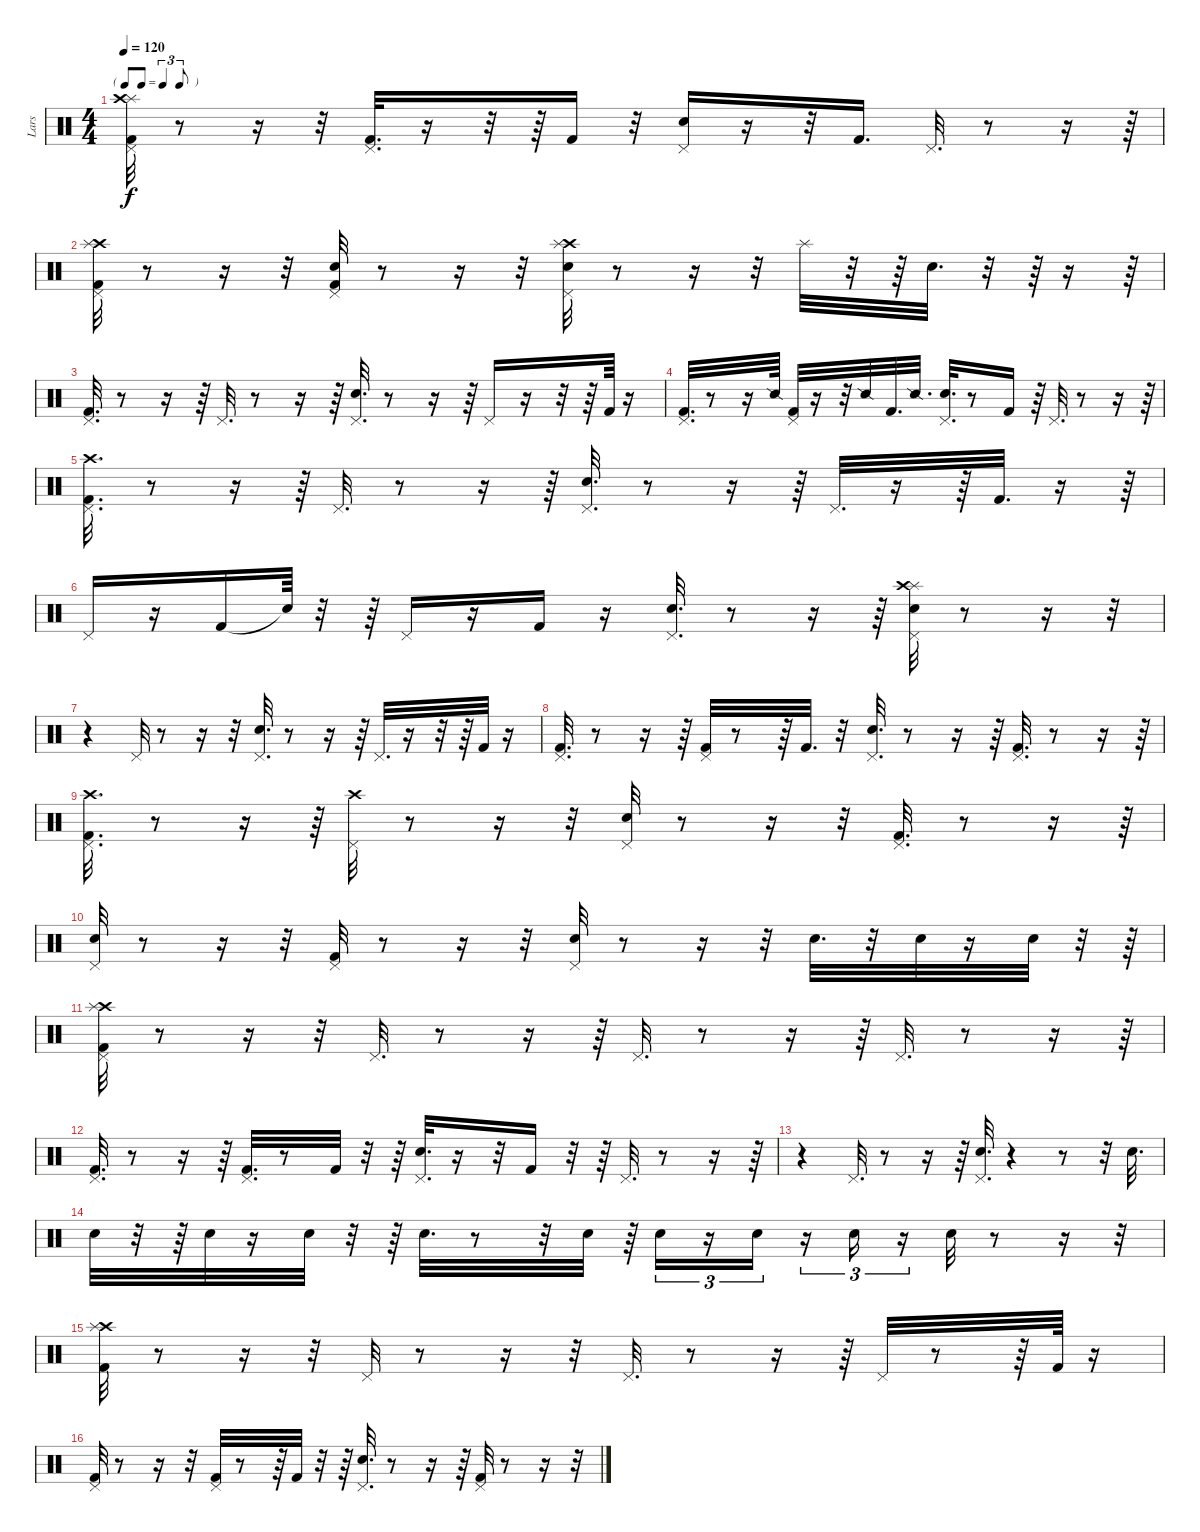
\track ("Lars" "Lars") {instrument percussion}
\staff {score}
\articulation defaults
\ts (4 4)
\tf triplet8th
\tempo 120
\clef neutral
\ks c
("Splash (hit)" "Crash high (hit)" "Kick (hit) 2" "Pedal Hi-Hat (hit)").32{dy f} r.8 r.16 r.32 ("Pedal Hi-Hat (hit)" "Kick (hit) 2").32{d} r.16 r.32 r.64 "Kick (hit) 2".16 r.32 ("Pedal Hi-Hat (hit)" "Electric Snare (hit)").16 r.16 r.32 "Kick (hit) 2".16{d} "Pedal Hi-Hat (hit)".32{d} r.8 r.16 r.64 |
("Kick (hit) 2" "Pedal Hi-Hat (hit)" "Crash high (hit)" "Splash (hit)").32 r.8 r.16 r.32 ("Kick (hit) 2" "Pedal Hi-Hat (hit)" "Electric Snare (hit)").32 r.8 r.16 r.32 ("Pedal Hi-Hat (hit)" "Crash high (hit)" "Splash (hit)" "Electric Snare (hit)").32 r.8 r.16 r.32 "Splash (hit)".32 r.32 r.64 "Electric Snare (hit)".32{d} r.32 r.64 r.16 r.64 |
("Pedal Hi-Hat (hit)" "Kick (hit) 2").32{d} r.8 r.16 r.64 "Pedal Hi-Hat (hit)".32{d} r.8 r.16 r.64 ("Pedal Hi-Hat (hit)" "Electric Snare (hit)").32{d} r.8 r.16 r.64 "Pedal Hi-Hat (hit)".16 r.16 r.32 r.64 "Kick (hit) 2".64 r.16 |
("Kick (hit) 2" "Pedal Hi-Hat (hit)").32{d} r.8 r.16 "Snare (side stick) 2".64 ("Kick (hit) 2" "Pedal Hi-Hat (hit)").32 r.16 r.32 "Snare (side stick) 2".32 "Kick (hit) 2".32{d} "Snare (side stick) 2".32{d} ("Electric Snare (hit)" "Pedal Hi-Hat (hit)").32{d} r.8 "Kick (hit) 2".16 r.64 "Pedal Hi-Hat (hit)".32{d} r.8 r.16 r.64 |
("Kick (hit) 2" "Pedal Hi-Hat (hit)" "Crash high (hit)").32{d} r.8 r.16 r.64 "Pedal Hi-Hat (hit)".32{d} r.8 r.16 r.64 ("Electric Snare (hit)" "Pedal Hi-Hat (hit)").32{d} r.8 r.16 r.64 "Pedal Hi-Hat (hit)".32{d} r.16 r.64 "Kick (hit) 2".32{d} r.16 r.64 |
"Pedal Hi-Hat (hit)".16 r.16 "Kick (hit) 2".16 "Snare (hit)"{t}.64 r.32 r.64 "Pedal Hi-Hat (hit)".16 r.16 "Kick (hit) 2".16 r.16 ("Pedal Hi-Hat (hit)" "Electric Snare (hit)").32{d} r.8 r.16 r.64 ("Splash (hit)" "Crash high (hit)" "Electric Snare (hit)" "Pedal Hi-Hat (hit)").32 r.8 r.16 r.32 |
r.4 "Pedal Hi-Hat (hit)".32 r.8 r.16 r.32 ("Electric Snare (hit)" "Pedal Hi-Hat (hit)").32{d} r.8 r.16 r.64 "Pedal Hi-Hat (hit)".32{d} r.16 r.32 r.64 "Kick (hit) 2".32 r.16 |
("Kick (hit) 2" "Pedal Hi-Hat (hit)").32{d} r.8 r.16 r.64 ("Kick (hit) 2" "Pedal Hi-Hat (hit)").32 r.8 r.64 "Kick (hit) 2".32{d} r.32 ("Pedal Hi-Hat (hit)" "Electric Snare (hit)").32{d} r.8 r.16 r.64 ("Kick (hit) 2" "Pedal Hi-Hat (hit)").32{d} r.8 r.16 r.64 |
("Crash high (hit)" "Pedal Hi-Hat (hit)" "Kick (hit) 2").32{d} r.8 r.16 r.64 ("Pedal Hi-Hat (hit)" "Crash high (hit)").32 r.8 r.16 r.32 ("Electric Snare (hit)" "Pedal Hi-Hat (hit)").32 r.8 r.16 r.32 ("Pedal Hi-Hat (hit)" "Kick (hit) 2").32{d} r.8 r.16 r.64 |
("Pedal Hi-Hat (hit)" "Electric Snare (hit)").32 r.8 r.16 r.32 ("Kick (hit) 2" "Pedal Hi-Hat (hit)").32 r.8 r.16 r.32 ("Pedal Hi-Hat (hit)" "Electric Snare (hit)").32 r.8 r.16 r.32 "Electric Snare (hit)".32{d} r.32 "Electric Snare (hit)".32 r.16 "Electric Snare (hit)".32 r.32 r.64 |
("Crash high (hit)" "Splash (hit)" "Kick (hit) 2" "Pedal Hi-Hat (hit)").32 r.8 r.16 r.32 "Pedal Hi-Hat (hit)".32{d} r.8 r.16 r.64 "Pedal Hi-Hat (hit)".32{d} r.8 r.16 r.64 "Pedal Hi-Hat (hit)".32{d} r.8 r.16 r.64 |
("Kick (hit) 2" "Pedal Hi-Hat (hit)").32{d} r.8 r.16 r.64 ("Kick (hit) 2" "Pedal Hi-Hat (hit)").32{d} r.8 "Kick (hit) 2".32 r.32 r.64 ("Electric Snare (hit)" "Pedal Hi-Hat (hit)").32{d} r.16 r.32 "Kick (hit) 2".16 r.32 r.64 "Pedal Hi-Hat (hit)".32{d} r.8 r.16 r.64 |
r.4 "Pedal Hi-Hat (hit)".32{d} r.8 r.16 r.64 ("Electric Snare (hit)" "Pedal Hi-Hat (hit)").32{d} r.4 r.8 r.32 "Electric Snare (hit)".32{d} |
"Electric Snare (hit)".32 r.32 r.64 "Electric Snare (hit)".32 r.16 "Electric Snare (hit)".32 r.32 r.64 "Electric Snare (hit)".32{d} r.8 r.32 "Electric Snare (hit)".32 r.64 "Electric Snare (hit)".16{tu (3 2)} r.16{tu (3 2)} "Electric Snare (hit)".16{tu (3 2)} r.16{tu (3 2)} "Electric Snare (hit)".16{tu (3 2)} r.16{tu (3 2)} "Electric Snare (hit)".32 r.8 r.16 r.32 |
("Kick (hit) 2" "Crash high (hit)" "Splash (hit)").32 r.8 r.16 r.32 "Pedal Hi-Hat (hit)".32 r.8 r.16 r.32 "Pedal Hi-Hat (hit)".32{d} r.8 r.16 r.64 "Pedal Hi-Hat (hit)".32 r.8 r.64 "Kick (hit) 2".64 r.16 |
("Kick (hit) 2" "Pedal Hi-Hat (hit)").32 r.8 r.16 r.32 ("Kick (hit) 2" "Pedal Hi-Hat (hit)").32 r.8 r.64 "Kick (hit) 2".32 r.32 r.64 ("Pedal Hi-Hat (hit)" "Electric Snare (hit)").32{d} r.8 r.16 r.64 ("Pedal Hi-Hat (hit)" "Kick (hit) 2").32 r.8 r.16 r.32
